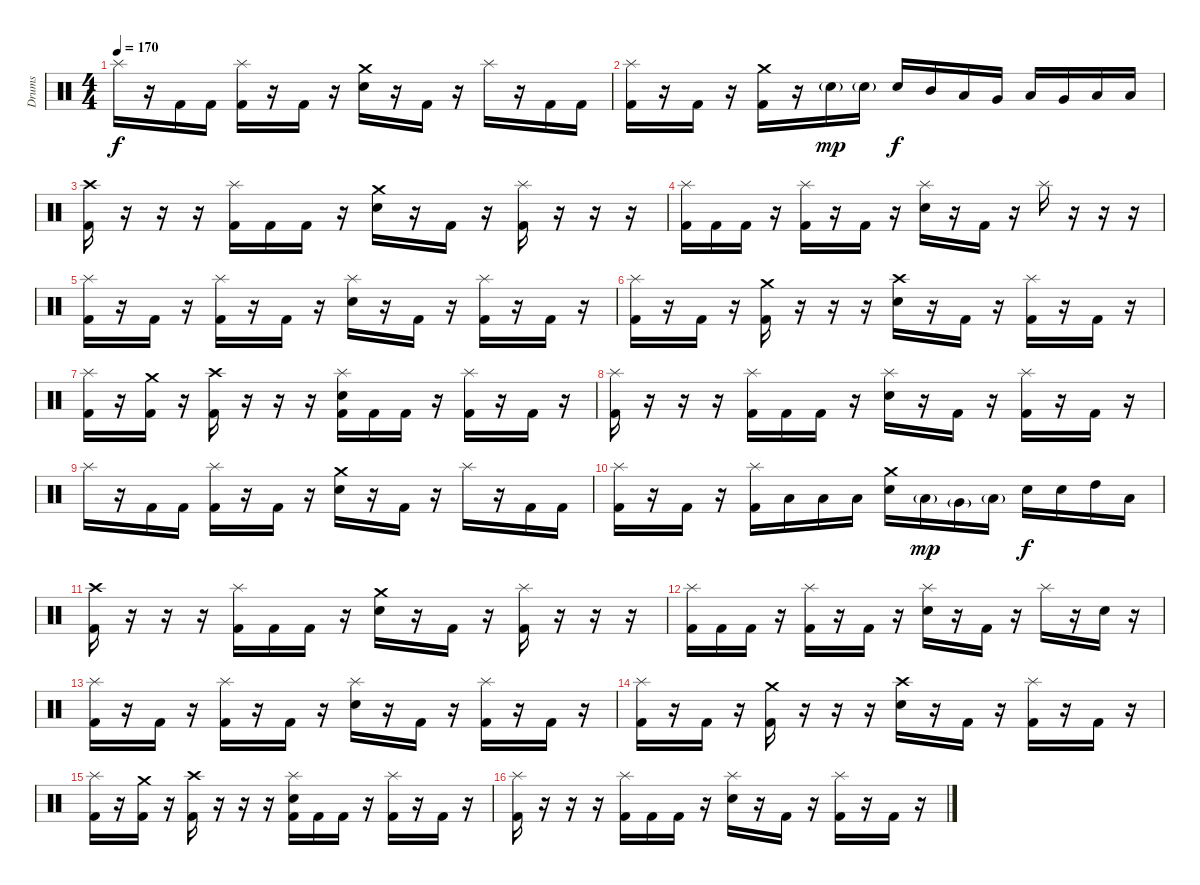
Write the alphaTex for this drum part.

\track ("Drums" "Drums") {instrument percussion}
\staff {score}
\articulation defaults
\ts (4 4)
\tempo 170
\clef neutral
\ks c "Splash (hit)".16{dy f}
r.16 "Kick (hit) 2".16 "Kick (hit) 2".16 ("Splash (hit)" "Kick (hit) 2").16 r.16 "Kick (hit) 2".16 r.16 ("Crash medium (hit)" "Electric Snare (hit)").16 r.16 "Kick (hit) 2".16 r.16 "Splash (hit)".16 r.16 "Kick (hit) 2".16 "Kick (hit) 2".16 |
("Splash (hit)" "Kick (hit) 2").16 r.16 "Kick (hit) 2".16 r.16 ("Crash medium (hit)" "Kick (hit) 2").16 r.16 "Electric Snare (hit)"{g}.16{dy mp} "Electric Snare (hit)"{g}.16 "Electric Snare (hit)".16{dy f} "Mid Tom (hit)".16 "Low Tom (hit)".16 "Very Low Tom (hit)".16 "Low Floor Tom (hit)".16 "Very Low Tom (hit)".16 "Low Floor Tom (hit)".16 "Low Floor Tom (hit)".16 |
("Crash high (hit)" "Kick (hit) 2").16 r.16 r.16 r.16 ("Splash (hit)" "Kick (hit) 2").16 "Kick (hit) 2".16 "Kick (hit) 2".16 r.16 ("Crash medium (hit)" "Electric Snare (hit)").16 r.16 "Kick (hit) 2".16 r.16 ("Splash (hit)" "Kick (hit) 2").16 r.16 r.16 r.16 |
("Splash (hit)" "Kick (hit) 2").16 "Kick (hit) 2".16 "Kick (hit) 2".16 r.16 ("Splash (hit)" "Kick (hit) 2").16 r.16 "Kick (hit) 2".16 r.16 ("Splash (hit)" "Electric Snare (hit)").16 r.16 "Kick (hit) 2".16 r.16 "Splash (hit)".16 r.16 r.16 r.16 |
("Splash (hit)" "Kick (hit) 2").16 r.16 "Kick (hit) 2".16 r.16 ("Splash (hit)" "Kick (hit) 2").16 r.16 "Kick (hit) 2".16 r.16 ("Splash (hit)" "Electric Snare (hit)").16 r.16 "Kick (hit) 2".16 r.16 ("Splash (hit)" "Kick (hit) 2").16 r.16 "Kick (hit) 2".16 r.16 |
("Splash (hit)" "Kick (hit) 2").16 r.16 "Kick (hit) 2".16 r.16 ("Crash medium (hit)" "Kick (hit) 2").16 r.16 r.16 r.16 ("Crash high (hit)" "Electric Snare (hit)").16 r.16 "Kick (hit) 2".16 r.16 ("Splash (hit)" "Kick (hit) 2").16 r.16 "Kick (hit) 2".16 r.16 |
("Splash (hit)" "Kick (hit) 2").16 r.16 ("Crash medium (hit)" "Kick (hit) 2").16 r.16 ("Crash high (hit)" "Kick (hit) 2").16 r.16 r.16 r.16 ("Splash (hit)" "Electric Snare (hit)" "Kick (hit) 2").16 "Kick (hit) 2".16 "Kick (hit) 2".16 r.16 ("Splash (hit)" "Kick (hit) 2").16 r.16 "Kick (hit) 2".16 r.16 |
("Splash (hit)" "Kick (hit) 2").16 r.16 r.16 r.16 ("Splash (hit)" "Kick (hit) 2").16 "Kick (hit) 2".16 "Kick (hit) 2".16 r.16 ("Splash (hit)" "Electric Snare (hit)").16 r.16 "Kick (hit) 2".16 r.16 ("Splash (hit)" "Kick (hit) 2").16 r.16 "Kick (hit) 2".16 r.16 |
"Splash (hit)".16 r.16 "Kick (hit) 2".16 "Kick (hit) 2".16 ("Splash (hit)" "Kick (hit) 2").16 r.16 "Kick (hit) 2".16 r.16 ("Crash medium (hit)" "Electric Snare (hit)").16 r.16 "Kick (hit) 2".16 r.16 "Splash (hit)".16 r.16 "Kick (hit) 2".16 "Kick (hit) 2".16 |
("Splash (hit)" "Kick (hit) 2").16 r.16 "Kick (hit) 2".16 r.16 ("Splash (hit)" "Kick (hit) 2").16 "Low Floor Tom (hit)".16 "Low Floor Tom (hit)".16 "Low Floor Tom (hit)".16 ("Crash medium (hit)" "Electric Snare (hit)").16 "Low Tom (hit)"{g}.16{dy mp} "Very Low Tom (hit)"{g}.16 "Low Floor Tom (hit)"{g}.16 "Electric Snare (hit)".16{dy f} "Electric Snare (hit)".16 "High Tom (hit)".16 "Low Tom (hit)".16 |
("Crash high (hit)" "Kick (hit) 2").16 r.16 r.16 r.16 ("Splash (hit)" "Kick (hit) 2").16 "Kick (hit) 2".16 "Kick (hit) 2".16 r.16 ("Crash medium (hit)" "Electric Snare (hit)").16 r.16 "Kick (hit) 2".16 r.16 ("Splash (hit)" "Kick (hit) 2").16 r.16 r.16 r.16 |
("Splash (hit)" "Kick (hit) 2").16 "Kick (hit) 2".16 "Kick (hit) 2".16 r.16 ("Splash (hit)" "Kick (hit) 2").16 r.16 "Kick (hit) 2".16 r.16 ("Splash (hit)" "Electric Snare (hit)").16 r.16 "Kick (hit) 2".16 r.16 "Splash (hit)".16 r.16 "Electric Snare (hit)".16 r.16 |
("Splash (hit)" "Kick (hit) 2").16 r.16 "Kick (hit) 2".16 r.16 ("Splash (hit)" "Kick (hit) 2").16 r.16 "Kick (hit) 2".16 r.16 ("Splash (hit)" "Electric Snare (hit)").16 r.16 "Kick (hit) 2".16 r.16 ("Splash (hit)" "Kick (hit) 2").16 r.16 "Kick (hit) 2".16 r.16 |
("Splash (hit)" "Kick (hit) 2").16 r.16 "Kick (hit) 2".16 r.16 ("Crash medium (hit)" "Kick (hit) 2").16 r.16 r.16 r.16 ("Crash high (hit)" "Electric Snare (hit)").16 r.16 "Kick (hit) 2".16 r.16 ("Splash (hit)" "Kick (hit) 2").16 r.16 "Kick (hit) 2".16 r.16 |
("Splash (hit)" "Kick (hit) 2").16 r.16 ("Crash medium (hit)" "Kick (hit) 2").16 r.16 ("Crash high (hit)" "Kick (hit) 2").16 r.16 r.16 r.16 ("Splash (hit)" "Electric Snare (hit)" "Kick (hit) 2").16 "Kick (hit) 2".16 "Kick (hit) 2".16 r.16 ("Splash (hit)" "Kick (hit) 2").16 r.16 "Kick (hit) 2".16 r.16 |
("Splash (hit)" "Kick (hit) 2").16 r.16 r.16 r.16 ("Splash (hit)" "Kick (hit) 2").16 "Kick (hit) 2".16 "Kick (hit) 2".16 r.16 ("Splash (hit)" "Electric Snare (hit)").16 r.16 "Kick (hit) 2".16 r.16 ("Splash (hit)" "Kick (hit) 2").16 r.16 "Kick (hit) 2".16 r.16
